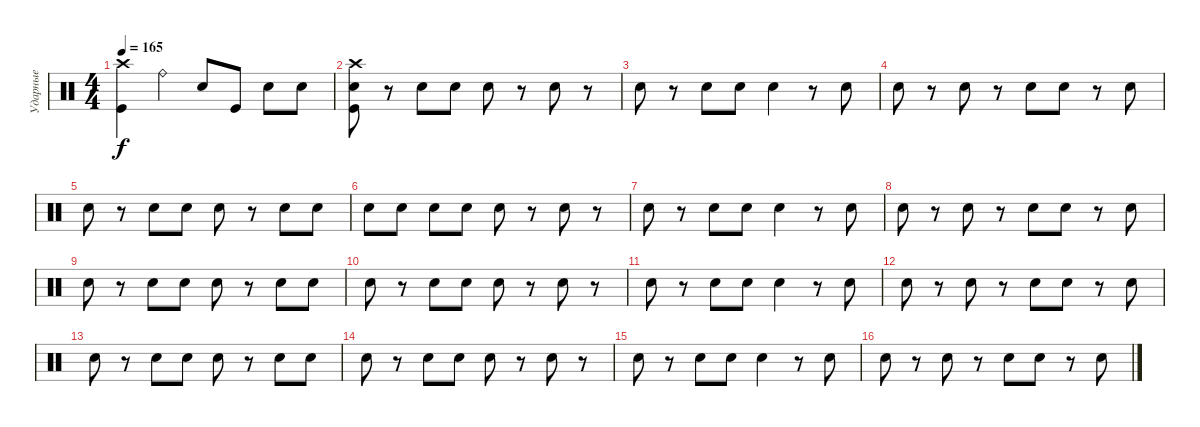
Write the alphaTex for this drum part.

\track ("Ударные" "Ударные") {instrument percussion}
\staff {score}
\articulation defaults
\ts (4 4)
\tempo 165
\clef neutral
\ks c
("Crash high (hit)" "Kick (hit)").4{dy f} "Ride (bell)".4 "Electric Snare (hit)".8 "Kick (hit)".8 "Electric Snare (hit)".8 "Electric Snare (hit)".8 |
("Crash high (hit)" "Electric Snare (hit)" "Kick (hit)").8 r.8 "Electric Snare (hit)".8 "Electric Snare (hit)".8 "Electric Snare (hit)".8 r.8 "Electric Snare (hit)".8 r.8 |
"Electric Snare (hit)".8 r.8 "Electric Snare (hit)".8 "Electric Snare (hit)".8 "Electric Snare (hit)".4 r.8 "Electric Snare (hit)".8 |
"Electric Snare (hit)".8 r.8 "Electric Snare (hit)".8 r.8 "Electric Snare (hit)".8 "Electric Snare (hit)".8 r.8 "Electric Snare (hit)".8 |
"Electric Snare (hit)".8 r.8 "Electric Snare (hit)".8 "Electric Snare (hit)".8 "Electric Snare (hit)".8 r.8 "Electric Snare (hit)".8 "Electric Snare (hit)".8 |
"Electric Snare (hit)".8 "Electric Snare (hit)".8 "Electric Snare (hit)".8 "Electric Snare (hit)".8 "Electric Snare (hit)".8 r.8 "Electric Snare (hit)".8 r.8 |
"Electric Snare (hit)".8 r.8 "Electric Snare (hit)".8 "Electric Snare (hit)".8 "Electric Snare (hit)".4 r.8 "Electric Snare (hit)".8 |
"Electric Snare (hit)".8 r.8 "Electric Snare (hit)".8 r.8 "Electric Snare (hit)".8 "Electric Snare (hit)".8 r.8 "Electric Snare (hit)".8 |
"Electric Snare (hit)".8 r.8 "Electric Snare (hit)".8 "Electric Snare (hit)".8 "Electric Snare (hit)".8 r.8 "Electric Snare (hit)".8 "Electric Snare (hit)".8 |
"Electric Snare (hit)".8 r.8 "Electric Snare (hit)".8 "Electric Snare (hit)".8 "Electric Snare (hit)".8 r.8 "Electric Snare (hit)".8 r.8 |
"Electric Snare (hit)".8 r.8 "Electric Snare (hit)".8 "Electric Snare (hit)".8 "Electric Snare (hit)".4 r.8 "Electric Snare (hit)".8 |
"Electric Snare (hit)".8 r.8 "Electric Snare (hit)".8 r.8 "Electric Snare (hit)".8 "Electric Snare (hit)".8 r.8 "Electric Snare (hit)".8 |
"Electric Snare (hit)".8 r.8 "Electric Snare (hit)".8 "Electric Snare (hit)".8 "Electric Snare (hit)".8 r.8 "Electric Snare (hit)".8 "Electric Snare (hit)".8 |
"Electric Snare (hit)".8 r.8 "Electric Snare (hit)".8 "Electric Snare (hit)".8 "Electric Snare (hit)".8 r.8 "Electric Snare (hit)".8 r.8 |
"Electric Snare (hit)".8 r.8 "Electric Snare (hit)".8 "Electric Snare (hit)".8 "Electric Snare (hit)".4 r.8 "Electric Snare (hit)".8 |
"Electric Snare (hit)".8 r.8 "Electric Snare (hit)".8 r.8 "Electric Snare (hit)".8 "Electric Snare (hit)".8 r.8 "Electric Snare (hit)".8
